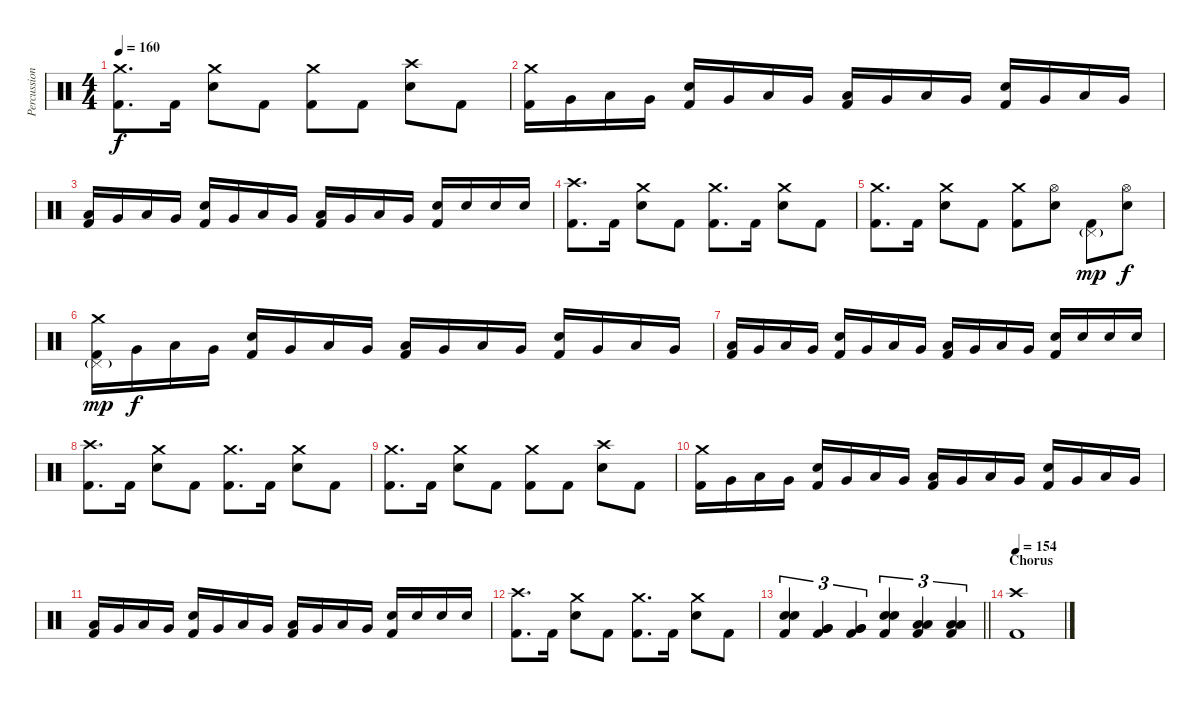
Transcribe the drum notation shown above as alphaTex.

\track ("Percussion" "Percussion") {instrument percussion}
\staff {score}
\articulation defaults
\ts (4 4)
\tempo 160
\clef neutral
\ks c
("Crash medium (hit)" "Kick (hit) 2").8{d dy f} "Kick (hit) 2".16 ("Crash medium (hit)" "Electric Snare (hit)").8 "Kick (hit) 2".8 ("Crash medium (hit)" "Kick (hit) 2").8 "Kick (hit) 2".8 ("Crash high (hit)" "Electric Snare (hit)").8 "Kick (hit) 2".8 |
("Crash medium (hit)" "Kick (hit) 2").16 "Very Low Tom (hit)".16 "Low Floor Tom (hit)".16 "Very Low Tom (hit)".16 ("Electric Snare (hit)" "Kick (hit) 2").16 "Very Low Tom (hit)".16 "Low Floor Tom (hit)".16 "Very Low Tom (hit)".16 ("Low Floor Tom (hit)" "Kick (hit) 2").16 "Very Low Tom (hit)".16 "Low Floor Tom (hit)".16 "Very Low Tom (hit)".16 ("Electric Snare (hit)" "Kick (hit) 2").16 "Very Low Tom (hit)".16 "Low Floor Tom (hit)".16 "Very Low Tom (hit)".16 |
("Low Floor Tom (hit)" "Kick (hit) 2").16 "Very Low Tom (hit)".16 "Low Floor Tom (hit)".16 "Very Low Tom (hit)".16 ("Electric Snare (hit)" "Kick (hit) 2").16 "Very Low Tom (hit)".16 "Low Floor Tom (hit)".16 "Very Low Tom (hit)".16 ("Low Floor Tom (hit)" "Kick (hit) 2").16 "Very Low Tom (hit)".16 "Low Floor Tom (hit)".16 "Very Low Tom (hit)".16 ("Electric Snare (hit)" "Kick (hit) 2").16 "Electric Snare (hit)".16 "Electric Snare (hit)".16 "Electric Snare (hit)".16 |
("Crash high (hit)" "Kick (hit) 2").8{d} "Kick (hit) 2".16 ("Crash medium (hit)" "Electric Snare (hit)").8 "Kick (hit) 2".8 ("Crash medium (hit)" "Kick (hit) 2").8{d} "Kick (hit) 2".16 ("Crash medium (hit)" "Electric Snare (hit)").8 "Kick (hit) 2".8 |
("Crash medium (hit)" "Kick (hit) 2").8{d} "Kick (hit) 2".16 ("Crash medium (hit)" "Electric Snare (hit)").8 "Kick (hit) 2".8 ("Crash medium (hit)" "Kick (hit) 2").8 ("Hi-Hat (open)" "Electric Snare (hit)").8 ("Pedal Hi-Hat (hit)"{g} "Kick (hit) 2").8{dy mp} ("Hi-Hat (open)" "Electric Snare (hit)").8{dy f} |
("Crash medium (hit)" "Pedal Hi-Hat (hit)"{g} "Kick (hit) 2").16{dy mp} "Very Low Tom (hit)".16{dy f} "Low Floor Tom (hit)".16 "Very Low Tom (hit)".16 ("Electric Snare (hit)" "Kick (hit) 2").16 "Very Low Tom (hit)".16 "Low Floor Tom (hit)".16 "Very Low Tom (hit)".16 ("Low Floor Tom (hit)" "Kick (hit) 2").16 "Very Low Tom (hit)".16 "Low Floor Tom (hit)".16 "Very Low Tom (hit)".16 ("Electric Snare (hit)" "Kick (hit) 2").16 "Very Low Tom (hit)".16 "Low Floor Tom (hit)".16 "Very Low Tom (hit)".16 |
("Low Floor Tom (hit)" "Kick (hit) 2").16 "Very Low Tom (hit)".16 "Low Floor Tom (hit)".16 "Very Low Tom (hit)".16 ("Electric Snare (hit)" "Kick (hit) 2").16 "Very Low Tom (hit)".16 "Low Floor Tom (hit)".16 "Very Low Tom (hit)".16 ("Low Floor Tom (hit)" "Kick (hit) 2").16 "Very Low Tom (hit)".16 "Low Floor Tom (hit)".16 "Very Low Tom (hit)".16 ("Electric Snare (hit)" "Kick (hit) 2").16 "Electric Snare (hit)".16 "Electric Snare (hit)".16 "Electric Snare (hit)".16 |
("Crash high (hit)" "Kick (hit) 2").8{d} "Kick (hit) 2".16 ("Crash medium (hit)" "Electric Snare (hit)").8 "Kick (hit) 2".8 ("Crash medium (hit)" "Kick (hit) 2").8{d} "Kick (hit) 2".16 ("Crash medium (hit)" "Electric Snare (hit)").8 "Kick (hit) 2".8 |
("Crash medium (hit)" "Kick (hit) 2").8{d} "Kick (hit) 2".16 ("Crash medium (hit)" "Electric Snare (hit)").8 "Kick (hit) 2".8 ("Crash medium (hit)" "Kick (hit) 2").8 "Kick (hit) 2".8 ("Crash high (hit)" "Electric Snare (hit)").8 "Kick (hit) 2".8 |
("Crash medium (hit)" "Kick (hit) 2").16 "Very Low Tom (hit)".16 "Low Floor Tom (hit)".16 "Very Low Tom (hit)".16 ("Electric Snare (hit)" "Kick (hit) 2").16 "Very Low Tom (hit)".16 "Low Floor Tom (hit)".16 "Very Low Tom (hit)".16 ("Low Floor Tom (hit)" "Kick (hit) 2").16 "Very Low Tom (hit)".16 "Low Floor Tom (hit)".16 "Very Low Tom (hit)".16 ("Electric Snare (hit)" "Kick (hit) 2").16 "Very Low Tom (hit)".16 "Low Floor Tom (hit)".16 "Very Low Tom (hit)".16 |
("Low Floor Tom (hit)" "Kick (hit) 2").16 "Very Low Tom (hit)".16 "Low Floor Tom (hit)".16 "Very Low Tom (hit)".16 ("Electric Snare (hit)" "Kick (hit) 2").16 "Very Low Tom (hit)".16 "Low Floor Tom (hit)".16 "Very Low Tom (hit)".16 ("Low Floor Tom (hit)" "Kick (hit) 2").16 "Very Low Tom (hit)".16 "Low Floor Tom (hit)".16 "Very Low Tom (hit)".16 ("Electric Snare (hit)" "Kick (hit) 2").16 "Electric Snare (hit)".16 "Electric Snare (hit)".16 "Electric Snare (hit)".16 |
("Crash high (hit)" "Kick (hit) 2").8{d} "Kick (hit) 2".16 ("Crash medium (hit)" "Electric Snare (hit)").8 "Kick (hit) 2".8 ("Crash medium (hit)" "Kick (hit) 2").8{d} "Kick (hit) 2".16 ("Crash medium (hit)" "Electric Snare (hit)").8 "Kick (hit) 2".8 |
\barLineRight lightlight
("Electric Snare (hit)" "Electric Snare (hit)" "Kick (hit) 2").4{tu (3 2)} ("Very Low Tom (hit)" "Very Low Tom (hit)" "Kick (hit) 2").4{tu (3 2)} ("Very Low Tom (hit)" "Very Low Tom (hit)" "Kick (hit) 2").4{tu (3 2)} ("Electric Snare (hit)" "Electric Snare (hit)" "Kick (hit) 2").4{tu (3 2)} ("Low Floor Tom (hit)" "Low Floor Tom (hit)" "Kick (hit) 2").4{tu (3 2)} ("Low Floor Tom (hit)" "Low Floor Tom (hit)" "Kick (hit) 2").4{tu (3 2)} |
\section ("" "Chorus")
\tempo 154
("Crash high (hit)" "Kick (hit) 2").1
